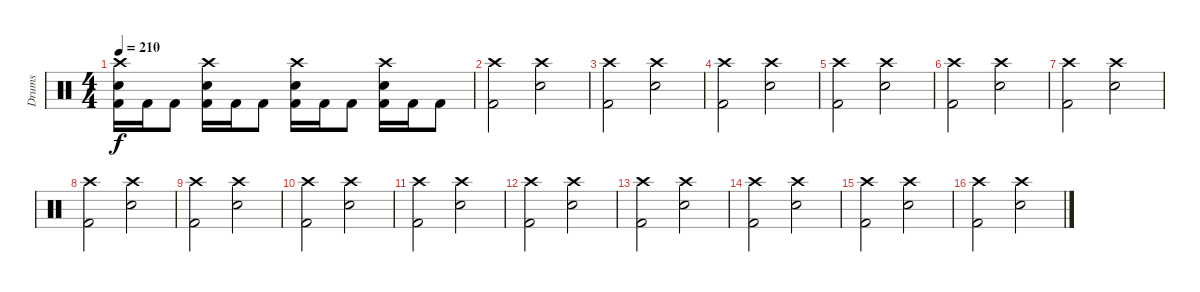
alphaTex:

\track ("Drums" "Drums") {instrument percussion}
\staff {score}
\articulation defaults
\ts (4 4)
\tempo 210
\clef neutral
\ks c
("Crash high (hit)" "Electric Snare (hit)" "Kick (hit) 2").16{dy f} "Kick (hit) 2".16 "Kick (hit) 2".8 ("Crash high (hit)" "Electric Snare (hit)" "Kick (hit) 2").16 "Kick (hit) 2".16 "Kick (hit) 2".8 ("Crash high (hit)" "Electric Snare (hit)" "Kick (hit) 2").16 "Kick (hit) 2".16 "Kick (hit) 2".8 ("Crash high (hit)" "Electric Snare (hit)" "Kick (hit) 2").16 "Kick (hit) 2".16 "Kick (hit) 2".8 |
("Crash high (hit)" "Kick (hit) 2").2 ("Crash high (hit)" "Electric Snare (hit)").2 |
("Crash high (hit)" "Kick (hit) 2").2 ("Crash high (hit)" "Electric Snare (hit)").2 |
("Crash high (hit)" "Kick (hit) 2").2 ("Crash high (hit)" "Electric Snare (hit)").2 |
("Crash high (hit)" "Kick (hit) 2").2 ("Crash high (hit)" "Electric Snare (hit)").2 |
("Crash high (hit)" "Kick (hit) 2").2 ("Crash high (hit)" "Electric Snare (hit)").2 |
("Crash high (hit)" "Kick (hit) 2").2 ("Crash high (hit)" "Electric Snare (hit)").2 |
("Crash high (hit)" "Kick (hit) 2").2 ("Crash high (hit)" "Electric Snare (hit)").2 |
("Crash high (hit)" "Kick (hit) 2").2 ("Crash high (hit)" "Electric Snare (hit)").2 |
("Crash high (hit)" "Kick (hit) 2").2 ("Crash high (hit)" "Electric Snare (hit)").2 |
("Crash high (hit)" "Kick (hit) 2").2 ("Crash high (hit)" "Electric Snare (hit)").2 |
("Crash high (hit)" "Kick (hit) 2").2 ("Crash high (hit)" "Electric Snare (hit)").2 |
("Crash high (hit)" "Kick (hit) 2").2 ("Crash high (hit)" "Electric Snare (hit)").2 |
("Crash high (hit)" "Kick (hit) 2").2 ("Crash high (hit)" "Electric Snare (hit)").2 |
("Crash high (hit)" "Kick (hit) 2").2 ("Crash high (hit)" "Electric Snare (hit)").2 |
("Crash high (hit)" "Kick (hit) 2").2 ("Crash high (hit)" "Electric Snare (hit)").2
